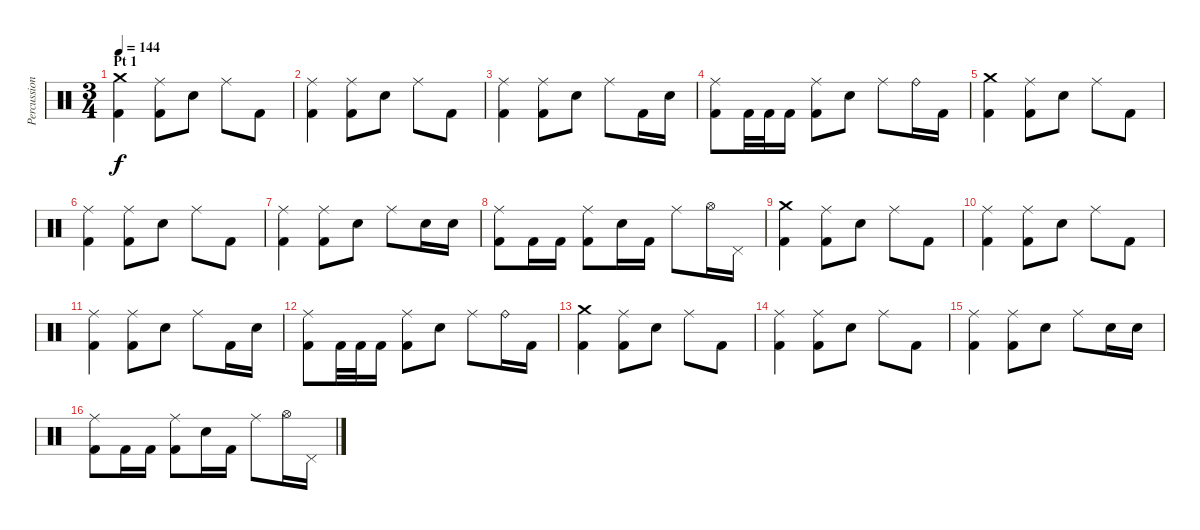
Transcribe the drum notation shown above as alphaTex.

\track ("Percussion" "Percussion") {instrument percussion}
\staff {score}
\articulation defaults
\ts (3 4)
\section ("" "Pt 1")
\tempo 144
\clef neutral
\ks c
("Crash medium (hit)" "Kick (hit) 2").4{dy f} ("Ride (middle)" "Kick (hit) 2").8 "Electric Snare (hit)".8 "Ride (middle)".8 "Kick (hit) 2".8 |
("Ride (middle)" "Kick (hit) 2").4 ("Ride (middle)" "Kick (hit) 2").8 "Electric Snare (hit)".8 "Ride (middle)".8 "Kick (hit) 2".8 |
("Ride (middle)" "Kick (hit) 2").4 ("Ride (middle)" "Kick (hit) 2").8 "Electric Snare (hit)".8 "Ride (middle)".8 "Kick (hit) 2".16 "Electric Snare (hit)".16 |
("Ride (middle)" "Kick (hit) 2").8 "Kick (hit) 2".32 "Kick (hit) 2".32 "Kick (hit) 2".16 ("Ride (middle)" "Kick (hit) 2").8 "Electric Snare (hit)".8 "Ride (middle)".8 "Ride (bell)".16 "Kick (hit) 2".16 |
("Crash medium (hit)" "Kick (hit) 2").4 ("Ride (middle)" "Kick (hit) 2").8 "Electric Snare (hit)".8 "Ride (middle)".8 "Kick (hit) 2".8 |
("Ride (middle)" "Kick (hit) 2").4 ("Ride (middle)" "Kick (hit) 2").8 "Electric Snare (hit)".8 "Ride (middle)".8 "Kick (hit) 2".8 |
("Ride (middle)" "Kick (hit) 2").4 ("Ride (middle)" "Kick (hit) 2").8 "Electric Snare (hit)".8 "Ride (middle)".8 "Electric Snare (hit)".16 "Electric Snare (hit)".16 |
("Ride (middle)" "Kick (hit) 2").8 "Kick (hit) 2".16 "Kick (hit) 2".16 ("Ride (middle)" "Kick (hit) 2").8 "Electric Snare (hit)".16 "Kick (hit) 2".16 "Ride (middle)".8 "Hi-Hat (open)".16 "Pedal Hi-Hat (hit)".16 |
("Crash medium (hit)" "Kick (hit) 2").4 ("Ride (middle)" "Kick (hit) 2").8 "Electric Snare (hit)".8 "Ride (middle)".8 "Kick (hit) 2".8 |
("Ride (middle)" "Kick (hit) 2").4 ("Ride (middle)" "Kick (hit) 2").8 "Electric Snare (hit)".8 "Ride (middle)".8 "Kick (hit) 2".8 |
("Ride (middle)" "Kick (hit) 2").4 ("Ride (middle)" "Kick (hit) 2").8 "Electric Snare (hit)".8 "Ride (middle)".8 "Kick (hit) 2".16 "Electric Snare (hit)".16 |
("Ride (middle)" "Kick (hit) 2").8 "Kick (hit) 2".32 "Kick (hit) 2".32 "Kick (hit) 2".16 ("Ride (middle)" "Kick (hit) 2").8 "Electric Snare (hit)".8 "Ride (middle)".8 "Ride (bell)".16 "Kick (hit) 2".16 |
("Crash medium (hit)" "Kick (hit) 2").4 ("Ride (middle)" "Kick (hit) 2").8 "Electric Snare (hit)".8 "Ride (middle)".8 "Kick (hit) 2".8 |
("Ride (middle)" "Kick (hit) 2").4 ("Ride (middle)" "Kick (hit) 2").8 "Electric Snare (hit)".8 "Ride (middle)".8 "Kick (hit) 2".8 |
("Ride (middle)" "Kick (hit) 2").4 ("Ride (middle)" "Kick (hit) 2").8 "Electric Snare (hit)".8 "Ride (middle)".8 "Electric Snare (hit)".16 "Electric Snare (hit)".16 |
("Ride (middle)" "Kick (hit) 2").8 "Kick (hit) 2".16 "Kick (hit) 2".16 ("Ride (middle)" "Kick (hit) 2").8 "Electric Snare (hit)".16 "Kick (hit) 2".16 "Ride (middle)".8 "Hi-Hat (open)".16 "Pedal Hi-Hat (hit)".16
